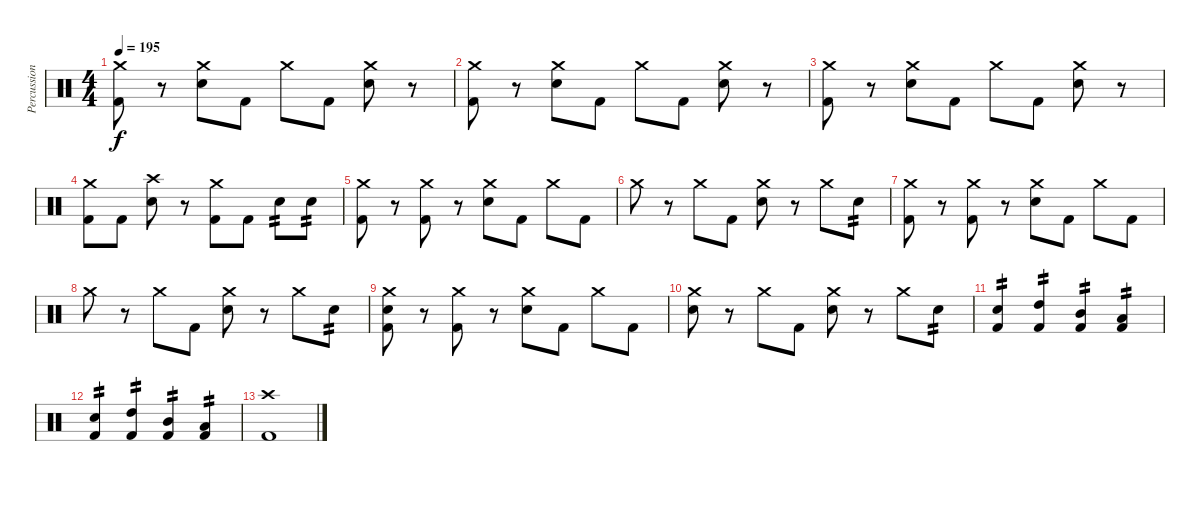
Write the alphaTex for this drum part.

\track ("Percussion" "Percussion") {instrument percussion}
\staff {score}
\articulation defaults
\ts (4 4)
\tempo 195
\clef neutral
\ks c
("Crash medium (hit)" "Kick (hit) 2").8{dy f} r.8 ("Crash medium (hit)" "Electric Snare (hit)").8 "Kick (hit) 2".8 "Crash medium (hit)".8 "Kick (hit) 2".8 ("Crash medium (hit)" "Electric Snare (hit)").8 r.8 |
("Crash medium (hit)" "Kick (hit) 2").8 r.8 ("Crash medium (hit)" "Electric Snare (hit)").8 "Kick (hit) 2".8 "Crash medium (hit)".8 "Kick (hit) 2".8 ("Crash medium (hit)" "Electric Snare (hit)").8 r.8 |
("Crash medium (hit)" "Kick (hit) 2").8 r.8 ("Crash medium (hit)" "Electric Snare (hit)").8 "Kick (hit) 2".8 "Crash medium (hit)".8 "Kick (hit) 2".8 ("Crash medium (hit)" "Electric Snare (hit)").8 r.8 |
("Crash medium (hit)" "Kick (hit) 2").8 "Kick (hit) 2".8 ("Crash high (hit)" "Electric Snare (hit)").8 r.8 ("Crash medium (hit)" "Kick (hit) 2").8 "Kick (hit) 2".8 "Electric Snare (hit)".8{tp 2} "Electric Snare (hit)".8{tp 2} |
("Crash medium (hit)" "Kick (hit) 2").8 r.8 ("Crash medium (hit)" "Kick (hit) 2").8 r.8 ("Crash medium (hit)" "Electric Snare (hit)").8 "Kick (hit) 2".8 "Crash medium (hit)".8 "Kick (hit) 2".8 |
"Crash medium (hit)".8 r.8 "Crash medium (hit)".8 "Kick (hit) 2".8 ("Crash medium (hit)" "Electric Snare (hit)").8 r.8 "Crash medium (hit)".8 "Electric Snare (hit)".8{tp 2} |
("Crash medium (hit)" "Kick (hit) 2").8 r.8 ("Crash medium (hit)" "Kick (hit) 2").8 r.8 ("Crash medium (hit)" "Electric Snare (hit)").8 "Kick (hit) 2".8 "Crash medium (hit)".8 "Kick (hit) 2".8 |
"Crash medium (hit)".8 r.8 "Crash medium (hit)".8 "Kick (hit) 2".8 ("Crash medium (hit)" "Electric Snare (hit)").8 r.8 "Crash medium (hit)".8 "Electric Snare (hit)".8{tp 2} |
("Crash medium (hit)" "Electric Snare (hit)" "Kick (hit) 2").8 r.8 ("Crash medium (hit)" "Kick (hit) 2").8 r.8 ("Crash medium (hit)" "Electric Snare (hit)").8 "Kick (hit) 2".8 "Crash medium (hit)".8 "Kick (hit) 2".8 |
("Crash medium (hit)" "Electric Snare (hit)").8 r.8 "Crash medium (hit)".8 "Kick (hit) 2".8 ("Crash medium (hit)" "Electric Snare (hit)").8 r.8 "Crash medium (hit)".8 "Electric Snare (hit)".8{tp 2} |
("Electric Snare (hit)" "Kick (hit) 2").4{tp 2} ("High Tom (hit)" "Kick (hit) 2").4{tp 2} ("Mid Tom (hit)" "Kick (hit) 2").4{tp 2} ("Low Tom (hit)" "Kick (hit) 2").4{tp 2} |
("Electric Snare (hit)" "Kick (hit) 2").4{tp 2} ("High Tom (hit)" "Kick (hit) 2").4{tp 2} ("Mid Tom (hit)" "Kick (hit) 2").4{tp 2} ("Low Tom (hit)" "Kick (hit) 2").4{tp 2} |
("Crash high (hit)" "Kick (hit) 2").1
